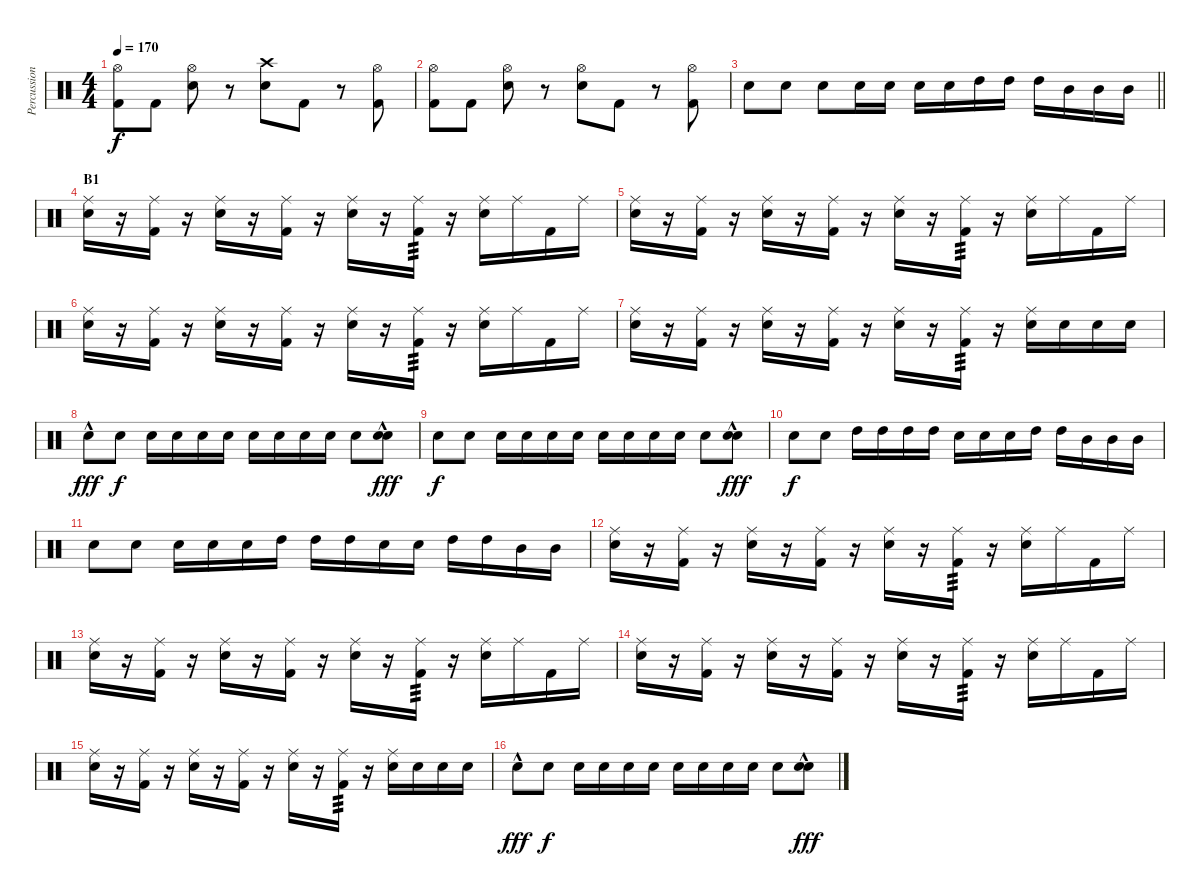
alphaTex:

\track ("Percussion" "Percussion") {instrument percussion}
\staff {score}
\articulation defaults
\ts (4 4)
\tempo 170
\clef neutral
\ks c
("Hi-Hat (open)" "Kick (hit) 2").8{dy f} "Kick (hit) 2".8 ("Hi-Hat (open)" "Electric Snare (hit)").8 r.8 ("Crash high (hit)" "Electric Snare (hit)").8 "Kick (hit) 2".8 r.8 ("Hi-Hat (open)" "Kick (hit) 2").8 |
("Hi-Hat (open)" "Kick (hit) 2").8 "Kick (hit) 2".8 ("Hi-Hat (open)" "Electric Snare (hit)").8 r.8 ("Hi-Hat (open)" "Electric Snare (hit)").8 "Kick (hit) 2".8 r.8 ("Hi-Hat (open)" "Kick (hit) 2").8 |
\barLineRight lightlight "Electric Snare (hit)".8 "Electric Snare (hit)".8 "Electric Snare (hit)".8 "Electric Snare (hit)".16 "Electric Snare (hit)".16 "Electric Snare (hit)".16 "Electric Snare (hit)".16 "High Tom (hit)".16 "High Tom (hit)".16 "High Tom (hit)".16 "Mid Tom (hit)".16 "Mid Tom (hit)".16 "Mid Tom (hit)".16
|
\section ("" "B1")
("Ride (middle)" "Electric Snare (hit)").16 r.16 ("Ride (middle)" "Kick (hit) 2").16 r.16 ("Ride (middle)" "Electric Snare (hit)").16 r.16 ("Ride (middle)" "Kick (hit) 2").16 r.16 ("Ride (middle)" "Electric Snare (hit)").16 r.16 ("Ride (middle)" "Kick (hit) 2").16{tp 3} r.16 ("Ride (middle)" "Electric Snare (hit)").16 "Ride (middle)".16 "Kick (hit) 2".16 "Ride (middle)".16 |
("Ride (middle)" "Electric Snare (hit)").16 r.16 ("Ride (middle)" "Kick (hit) 2").16 r.16 ("Ride (middle)" "Electric Snare (hit)").16 r.16 ("Ride (middle)" "Kick (hit) 2").16 r.16 ("Ride (middle)" "Electric Snare (hit)").16 r.16 ("Ride (middle)" "Kick (hit) 2").16{tp 3} r.16 ("Ride (middle)" "Electric Snare (hit)").16 "Ride (middle)".16 "Kick (hit) 2".16 "Ride (middle)".16 |
("Ride (middle)" "Electric Snare (hit)").16 r.16 ("Ride (middle)" "Kick (hit) 2").16 r.16 ("Ride (middle)" "Electric Snare (hit)").16 r.16 ("Ride (middle)" "Kick (hit) 2").16 r.16 ("Ride (middle)" "Electric Snare (hit)").16 r.16 ("Ride (middle)" "Kick (hit) 2").16{tp 3} r.16 ("Ride (middle)" "Electric Snare (hit)").16 "Ride (middle)".16 "Kick (hit) 2".16 "Ride (middle)".16 |
("Ride (middle)" "Electric Snare (hit)").16 r.16 ("Ride (middle)" "Kick (hit) 2").16 r.16 ("Ride (middle)" "Electric Snare (hit)").16 r.16 ("Ride (middle)" "Kick (hit) 2").16 r.16 ("Ride (middle)" "Electric Snare (hit)").16 r.16 ("Ride (middle)" "Kick (hit) 2").16{tp 3} r.16 ("Ride (middle)" "Electric Snare (hit)").16 "Electric Snare (hit)".16 "Electric Snare (hit)".16 "Electric Snare (hit)".16 |
"Electric Snare (hit)"{hac}.8{dy fff} "Electric Snare (hit)".8{dy f} "Electric Snare (hit)".16 "Electric Snare (hit)".16 "Electric Snare (hit)".16 "Electric Snare (hit)".16 "Electric Snare (hit)".16 "Electric Snare (hit)".16 "Electric Snare (hit)".16 "Electric Snare (hit)".16 "Electric Snare (hit)".8 ("Electric Snare (hit)"{hac} "Electric Snare (hit)"{hac}).8{dy fff} |
"Electric Snare (hit)".8{dy f} "Electric Snare (hit)".8 "Electric Snare (hit)".16 "Electric Snare (hit)".16 "Electric Snare (hit)".16 "Electric Snare (hit)".16 "Electric Snare (hit)".16 "Electric Snare (hit)".16 "Electric Snare (hit)".16 "Electric Snare (hit)".16 "Electric Snare (hit)".8 ("Electric Snare (hit)"{hac} "Electric Snare (hit)"{hac}).8{dy fff} |
"Electric Snare (hit)".8{dy f} "Electric Snare (hit)".8 "High Tom (hit)".16 "High Tom (hit)".16 "High Tom (hit)".16 "High Tom (hit)".16 "Electric Snare (hit)".16 "Electric Snare (hit)".16 "Electric Snare (hit)".16 "High Tom (hit)".16 "High Tom (hit)".16 "Mid Tom (hit)".16 "Mid Tom (hit)".16 "Mid Tom (hit)".16 |
"Electric Snare (hit)".8 "Electric Snare (hit)".8 "Electric Snare (hit)".16 "Electric Snare (hit)".16 "Electric Snare (hit)".16 "High Tom (hit)".16 "High Tom (hit)".16 "High Tom (hit)".16 "Electric Snare (hit)".16 "Electric Snare (hit)".16 "High Tom (hit)".16 "High Tom (hit)".16 "Mid Tom (hit)".16 "Mid Tom (hit)".16 |
("Ride (middle)" "Electric Snare (hit)").16 r.16 ("Ride (middle)" "Kick (hit) 2").16 r.16 ("Ride (middle)" "Electric Snare (hit)").16 r.16 ("Ride (middle)" "Kick (hit) 2").16 r.16 ("Ride (middle)" "Electric Snare (hit)").16 r.16 ("Ride (middle)" "Kick (hit) 2").16{tp 3} r.16 ("Ride (middle)" "Electric Snare (hit)").16 "Ride (middle)".16 "Kick (hit) 2".16 "Ride (middle)".16 |
("Ride (middle)" "Electric Snare (hit)").16 r.16 ("Ride (middle)" "Kick (hit) 2").16 r.16 ("Ride (middle)" "Electric Snare (hit)").16 r.16 ("Ride (middle)" "Kick (hit) 2").16 r.16 ("Ride (middle)" "Electric Snare (hit)").16 r.16 ("Ride (middle)" "Kick (hit) 2").16{tp 3} r.16 ("Ride (middle)" "Electric Snare (hit)").16 "Ride (middle)".16 "Kick (hit) 2".16 "Ride (middle)".16 |
("Ride (middle)" "Electric Snare (hit)").16 r.16 ("Ride (middle)" "Kick (hit) 2").16 r.16 ("Ride (middle)" "Electric Snare (hit)").16 r.16 ("Ride (middle)" "Kick (hit) 2").16 r.16 ("Ride (middle)" "Electric Snare (hit)").16 r.16 ("Ride (middle)" "Kick (hit) 2").16{tp 3} r.16 ("Ride (middle)" "Electric Snare (hit)").16 "Ride (middle)".16 "Kick (hit) 2".16 "Ride (middle)".16 |
("Ride (middle)" "Electric Snare (hit)").16 r.16 ("Ride (middle)" "Kick (hit) 2").16 r.16 ("Ride (middle)" "Electric Snare (hit)").16 r.16 ("Ride (middle)" "Kick (hit) 2").16 r.16 ("Ride (middle)" "Electric Snare (hit)").16 r.16 ("Ride (middle)" "Kick (hit) 2").16{tp 3} r.16 ("Ride (middle)" "Electric Snare (hit)").16 "Electric Snare (hit)".16 "Electric Snare (hit)".16 "Electric Snare (hit)".16 |
"Electric Snare (hit)"{hac}.8{dy fff} "Electric Snare (hit)".8{dy f} "Electric Snare (hit)".16 "Electric Snare (hit)".16 "Electric Snare (hit)".16 "Electric Snare (hit)".16 "Electric Snare (hit)".16 "Electric Snare (hit)".16 "Electric Snare (hit)".16 "Electric Snare (hit)".16 "Electric Snare (hit)".8 ("Electric Snare (hit)"{hac} "Electric Snare (hit)"{hac}).8{dy fff}
